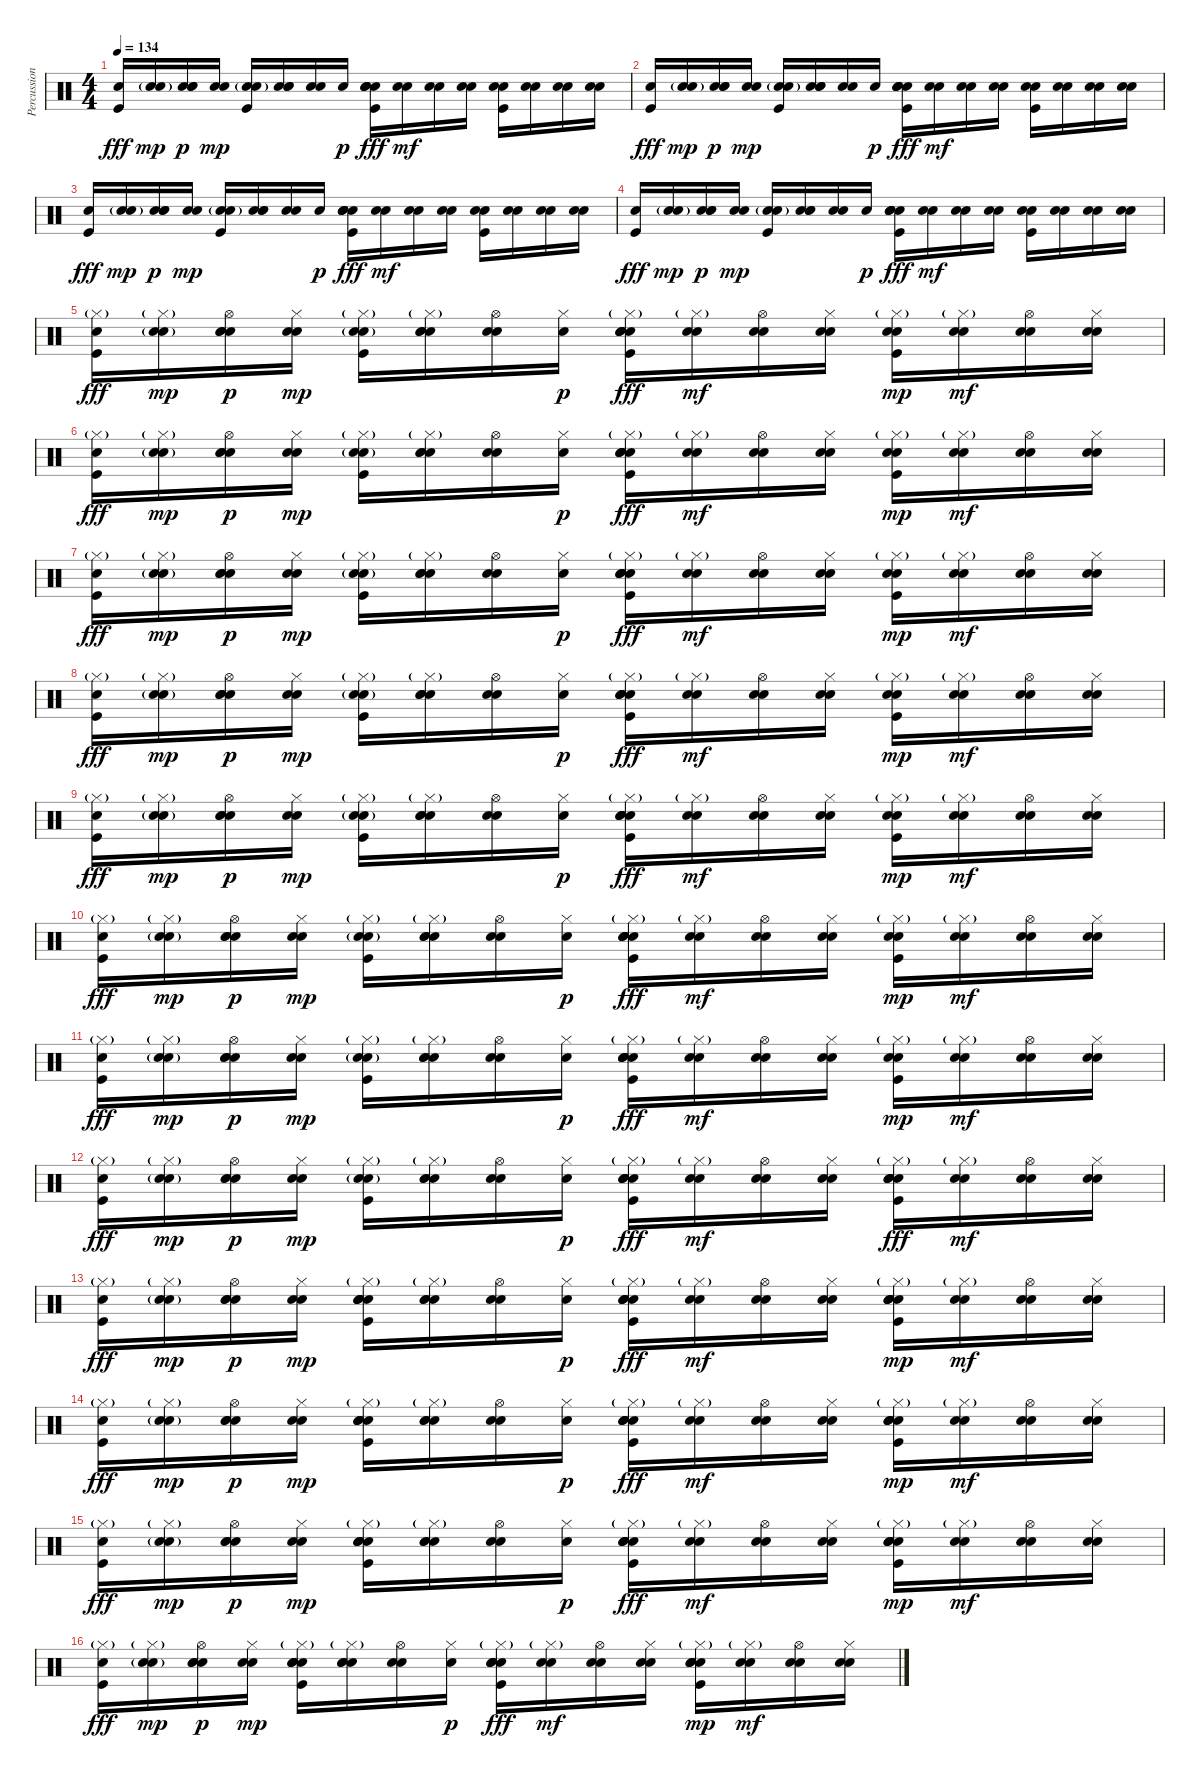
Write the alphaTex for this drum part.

\track ("Percussion" "Percussion") {instrument percussion}
\staff {score}
\articulation defaults
\ts (4 4)
\tempo 134
\clef neutral
\ks c
("Electric Snare (hit)" "Kick (hit)").16{dy fff} ("Electric Snare (hit)" "Electric Snare (hit)"{g}).16{dy mp} ("Electric Snare (hit)" "Electric Snare (hit)" "Snare (hit) 2").16{dy p} ("Electric Snare (hit)" "Snare (hit) 2").16{dy mp} ("Electric Snare (hit)" "Electric Snare (hit)"{g} "Kick (hit)").16 ("Electric Snare (hit)" "Electric Snare (hit)" "Snare (hit) 2").16 ("Electric Snare (hit)" "Snare (hit) 2").16 "Electric Snare (hit)".16{dy p} ("Electric Snare (hit)" "Snare (hit) 2" "Snare (hit) 2" "Snare (hit) 2" "Kick (hit)").16{dy fff} ("Electric Snare (hit)" "Snare (hit) 2").16{dy mf} ("Electric Snare (hit)" "Snare (hit) 2").16 ("Electric Snare (hit)" "Snare (hit) 2").16 ("Electric Snare (hit)" "Snare (hit) 2" "Kick (hit)").16 ("Electric Snare (hit)" "Snare (hit) 2").16 ("Electric Snare (hit)" "Snare (hit) 2").16 ("Electric Snare (hit)" "Snare (hit) 2").16 |
("Electric Snare (hit)" "Kick (hit)").16{dy fff} ("Electric Snare (hit)" "Electric Snare (hit)"{g}).16{dy mp} ("Electric Snare (hit)" "Electric Snare (hit)" "Snare (hit) 2").16{dy p} ("Electric Snare (hit)" "Snare (hit) 2").16{dy mp} ("Electric Snare (hit)" "Electric Snare (hit)"{g} "Kick (hit)").16 ("Electric Snare (hit)" "Electric Snare (hit)" "Snare (hit) 2").16 ("Electric Snare (hit)" "Snare (hit) 2").16 "Electric Snare (hit)".16{dy p} ("Electric Snare (hit)" "Snare (hit) 2" "Snare (hit) 2" "Snare (hit) 2" "Kick (hit)").16{dy fff} ("Electric Snare (hit)" "Snare (hit) 2").16{dy mf} ("Electric Snare (hit)" "Snare (hit) 2").16 ("Electric Snare (hit)" "Snare (hit) 2").16 ("Electric Snare (hit)" "Snare (hit) 2" "Kick (hit)").16 ("Electric Snare (hit)" "Snare (hit) 2").16 ("Electric Snare (hit)" "Snare (hit) 2").16 ("Electric Snare (hit)" "Snare (hit) 2").16 |
("Electric Snare (hit)" "Kick (hit)").16{dy fff} ("Electric Snare (hit)" "Electric Snare (hit)"{g}).16{dy mp} ("Electric Snare (hit)" "Electric Snare (hit)" "Snare (hit) 2").16{dy p} ("Electric Snare (hit)" "Snare (hit) 2").16{dy mp} ("Electric Snare (hit)" "Electric Snare (hit)"{g} "Kick (hit)").16 ("Electric Snare (hit)" "Electric Snare (hit)" "Snare (hit) 2").16 ("Electric Snare (hit)" "Snare (hit) 2").16 "Electric Snare (hit)".16{dy p} ("Electric Snare (hit)" "Snare (hit) 2" "Snare (hit) 2" "Snare (hit) 2" "Kick (hit)").16{dy fff} ("Electric Snare (hit)" "Snare (hit) 2").16{dy mf} ("Electric Snare (hit)" "Snare (hit) 2").16 ("Electric Snare (hit)" "Snare (hit) 2").16 ("Electric Snare (hit)" "Snare (hit) 2" "Kick (hit)").16 ("Electric Snare (hit)" "Snare (hit) 2").16 ("Electric Snare (hit)" "Snare (hit) 2").16 ("Electric Snare (hit)" "Snare (hit) 2").16 |
("Electric Snare (hit)" "Kick (hit)").16{dy fff} ("Electric Snare (hit)" "Electric Snare (hit)"{g}).16{dy mp} ("Electric Snare (hit)" "Electric Snare (hit)" "Snare (hit) 2").16{dy p} ("Electric Snare (hit)" "Snare (hit) 2").16{dy mp} ("Electric Snare (hit)" "Electric Snare (hit)"{g} "Kick (hit)").16 ("Electric Snare (hit)" "Electric Snare (hit)" "Snare (hit) 2").16 ("Electric Snare (hit)" "Snare (hit) 2").16 "Electric Snare (hit)".16{dy p} ("Electric Snare (hit)" "Snare (hit) 2" "Snare (hit) 2" "Snare (hit) 2" "Kick (hit)").16{dy fff} ("Electric Snare (hit)" "Snare (hit) 2").16{dy mf} ("Electric Snare (hit)" "Snare (hit) 2").16 ("Electric Snare (hit)" "Snare (hit) 2").16 ("Electric Snare (hit)" "Snare (hit) 2" "Kick (hit)").16 ("Electric Snare (hit)" "Snare (hit) 2").16 ("Electric Snare (hit)" "Snare (hit) 2").16 ("Electric Snare (hit)" "Snare (hit) 2").16 |
("Electric Snare (hit)" "Hi-Hat (closed)"{g} "Kick (hit)").16{dy fff} ("Electric Snare (hit)" "Hi-Hat (closed)"{g} "Electric Snare (hit)"{g}).16{dy mp} ("Electric Snare (hit)" "Hi-Hat (open)" "Electric Snare (hit)" "Snare (hit) 2").16{dy p} ("Electric Snare (hit)" "Hi-Hat (closed)" "Snare (hit) 2").16{dy mp} ("Electric Snare (hit)" "Hi-Hat (closed)"{g} "Electric Snare (hit)"{g} "Kick (hit)").16 ("Electric Snare (hit)" "Hi-Hat (closed)"{g} "Electric Snare (hit)" "Snare (hit) 2").16 ("Electric Snare (hit)" "Hi-Hat (open)" "Snare (hit) 2").16 ("Electric Snare (hit)" "Hi-Hat (closed)").16{dy p} ("Electric Snare (hit)" "Hi-Hat (closed)"{g} "Snare (hit) 2" "Snare (hit) 2" "Snare (hit) 2" "Kick (hit)").16{dy fff} ("Electric Snare (hit)" "Hi-Hat (closed)"{g} "Snare (hit) 2").16{dy mf} ("Electric Snare (hit)" "Hi-Hat (open)" "Snare (hit) 2").16 ("Electric Snare (hit)" "Hi-Hat (closed)" "Snare (hit) 2").16 ("Electric Snare (hit)" "Hi-Hat (closed)"{g} "Snare (hit) 2" "Kick (hit)").16{dy mp} ("Electric Snare (hit)" "Hi-Hat (closed)"{g} "Snare (hit) 2").16{dy mf} ("Electric Snare (hit)" "Hi-Hat (open)" "Snare (hit) 2").16 ("Electric Snare (hit)" "Hi-Hat (closed)" "Snare (hit) 2").16 |
("Electric Snare (hit)" "Hi-Hat (closed)"{g} "Kick (hit)").16{dy fff} ("Electric Snare (hit)" "Hi-Hat (closed)"{g} "Electric Snare (hit)"{g}).16{dy mp} ("Electric Snare (hit)" "Hi-Hat (open)" "Electric Snare (hit)" "Snare (hit) 2").16{dy p} ("Electric Snare (hit)" "Hi-Hat (closed)" "Snare (hit) 2").16{dy mp} ("Electric Snare (hit)" "Hi-Hat (closed)"{g} "Electric Snare (hit)"{g} "Kick (hit)").16 ("Electric Snare (hit)" "Hi-Hat (closed)"{g} "Electric Snare (hit)" "Snare (hit) 2").16 ("Electric Snare (hit)" "Hi-Hat (open)" "Snare (hit) 2").16 ("Electric Snare (hit)" "Hi-Hat (closed)").16{dy p} ("Electric Snare (hit)" "Hi-Hat (closed)"{g} "Snare (hit) 2" "Snare (hit) 2" "Snare (hit) 2" "Kick (hit)").16{dy fff} ("Electric Snare (hit)" "Hi-Hat (closed)"{g} "Snare (hit) 2").16{dy mf} ("Electric Snare (hit)" "Hi-Hat (open)" "Snare (hit) 2").16 ("Electric Snare (hit)" "Hi-Hat (closed)" "Snare (hit) 2").16 ("Electric Snare (hit)" "Hi-Hat (closed)"{g} "Snare (hit) 2" "Kick (hit)").16{dy mp} ("Electric Snare (hit)" "Hi-Hat (closed)"{g} "Snare (hit) 2").16{dy mf} ("Electric Snare (hit)" "Hi-Hat (open)" "Snare (hit) 2").16 ("Electric Snare (hit)" "Hi-Hat (closed)" "Snare (hit) 2").16 |
("Electric Snare (hit)" "Hi-Hat (closed)"{g} "Kick (hit)").16{dy fff} ("Electric Snare (hit)" "Hi-Hat (closed)"{g} "Electric Snare (hit)"{g}).16{dy mp} ("Electric Snare (hit)" "Hi-Hat (open)" "Electric Snare (hit)" "Snare (hit) 2").16{dy p} ("Electric Snare (hit)" "Hi-Hat (closed)" "Snare (hit) 2").16{dy mp} ("Electric Snare (hit)" "Hi-Hat (closed)"{g} "Electric Snare (hit)"{g} "Kick (hit)").16 ("Electric Snare (hit)" "Hi-Hat (closed)"{g} "Electric Snare (hit)" "Snare (hit) 2").16 ("Electric Snare (hit)" "Hi-Hat (open)" "Snare (hit) 2").16 ("Electric Snare (hit)" "Hi-Hat (closed)").16{dy p} ("Electric Snare (hit)" "Hi-Hat (closed)"{g} "Snare (hit) 2" "Snare (hit) 2" "Snare (hit) 2" "Kick (hit)").16{dy fff} ("Electric Snare (hit)" "Hi-Hat (closed)"{g} "Snare (hit) 2").16{dy mf} ("Electric Snare (hit)" "Hi-Hat (open)" "Snare (hit) 2").16 ("Electric Snare (hit)" "Hi-Hat (closed)" "Snare (hit) 2").16 ("Electric Snare (hit)" "Hi-Hat (closed)"{g} "Snare (hit) 2" "Kick (hit)").16{dy mp} ("Electric Snare (hit)" "Hi-Hat (closed)"{g} "Snare (hit) 2").16{dy mf} ("Electric Snare (hit)" "Hi-Hat (open)" "Snare (hit) 2").16 ("Electric Snare (hit)" "Hi-Hat (closed)" "Snare (hit) 2").16 |
("Electric Snare (hit)" "Hi-Hat (closed)"{g} "Kick (hit)").16{dy fff} ("Electric Snare (hit)" "Hi-Hat (closed)"{g} "Electric Snare (hit)"{g}).16{dy mp} ("Electric Snare (hit)" "Hi-Hat (open)" "Electric Snare (hit)" "Snare (hit) 2").16{dy p} ("Electric Snare (hit)" "Hi-Hat (closed)" "Snare (hit) 2").16{dy mp} ("Electric Snare (hit)" "Hi-Hat (closed)"{g} "Electric Snare (hit)"{g} "Kick (hit)").16 ("Electric Snare (hit)" "Hi-Hat (closed)"{g} "Electric Snare (hit)" "Snare (hit) 2").16 ("Electric Snare (hit)" "Hi-Hat (open)" "Snare (hit) 2").16 ("Electric Snare (hit)" "Hi-Hat (closed)").16{dy p} ("Electric Snare (hit)" "Hi-Hat (closed)"{g} "Snare (hit) 2" "Snare (hit) 2" "Snare (hit) 2" "Kick (hit)").16{dy fff} ("Electric Snare (hit)" "Hi-Hat (closed)"{g} "Snare (hit) 2").16{dy mf} ("Electric Snare (hit)" "Hi-Hat (open)" "Snare (hit) 2").16 ("Electric Snare (hit)" "Hi-Hat (closed)" "Snare (hit) 2").16 ("Electric Snare (hit)" "Hi-Hat (closed)"{g} "Snare (hit) 2" "Kick (hit)").16{dy mp} ("Electric Snare (hit)" "Hi-Hat (closed)"{g} "Snare (hit) 2").16{dy mf} ("Electric Snare (hit)" "Hi-Hat (open)" "Snare (hit) 2").16 ("Electric Snare (hit)" "Hi-Hat (closed)" "Snare (hit) 2").16 |
("Electric Snare (hit)" "Hi-Hat (closed)"{g} "Kick (hit)").16{dy fff} ("Electric Snare (hit)" "Hi-Hat (closed)"{g} "Electric Snare (hit)"{g}).16{dy mp} ("Electric Snare (hit)" "Hi-Hat (open)" "Electric Snare (hit)" "Snare (hit) 2").16{dy p} ("Electric Snare (hit)" "Hi-Hat (closed)" "Snare (hit) 2").16{dy mp} ("Electric Snare (hit)" "Hi-Hat (closed)"{g} "Electric Snare (hit)"{g} "Kick (hit)").16 ("Electric Snare (hit)" "Hi-Hat (closed)"{g} "Electric Snare (hit)" "Snare (hit) 2").16 ("Electric Snare (hit)" "Hi-Hat (open)" "Snare (hit) 2").16 ("Electric Snare (hit)" "Hi-Hat (closed)").16{dy p} ("Electric Snare (hit)" "Hi-Hat (closed)"{g} "Snare (hit) 2" "Snare (hit) 2" "Snare (hit) 2" "Kick (hit)").16{dy fff} ("Electric Snare (hit)" "Hi-Hat (closed)"{g} "Snare (hit) 2").16{dy mf} ("Electric Snare (hit)" "Hi-Hat (open)" "Snare (hit) 2").16 ("Electric Snare (hit)" "Hi-Hat (closed)" "Snare (hit) 2").16 ("Electric Snare (hit)" "Hi-Hat (closed)"{g} "Snare (hit) 2" "Kick (hit)").16{dy mp} ("Electric Snare (hit)" "Hi-Hat (closed)"{g} "Snare (hit) 2").16{dy mf} ("Electric Snare (hit)" "Hi-Hat (open)" "Snare (hit) 2").16 ("Electric Snare (hit)" "Hi-Hat (closed)" "Snare (hit) 2").16 |
("Electric Snare (hit)" "Hi-Hat (closed)"{g} "Kick (hit)").16{dy fff} ("Electric Snare (hit)" "Hi-Hat (closed)"{g} "Electric Snare (hit)"{g}).16{dy mp} ("Electric Snare (hit)" "Hi-Hat (open)" "Electric Snare (hit)" "Snare (hit) 2").16{dy p} ("Electric Snare (hit)" "Hi-Hat (closed)" "Snare (hit) 2").16{dy mp} ("Electric Snare (hit)" "Hi-Hat (closed)"{g} "Electric Snare (hit)"{g} "Kick (hit)").16 ("Electric Snare (hit)" "Hi-Hat (closed)"{g} "Electric Snare (hit)" "Snare (hit) 2").16 ("Electric Snare (hit)" "Hi-Hat (open)" "Snare (hit) 2").16 ("Electric Snare (hit)" "Hi-Hat (closed)").16{dy p} ("Electric Snare (hit)" "Hi-Hat (closed)"{g} "Snare (hit) 2" "Snare (hit) 2" "Snare (hit) 2" "Kick (hit)").16{dy fff} ("Electric Snare (hit)" "Hi-Hat (closed)"{g} "Snare (hit) 2").16{dy mf} ("Electric Snare (hit)" "Hi-Hat (open)" "Snare (hit) 2").16 ("Electric Snare (hit)" "Hi-Hat (closed)" "Snare (hit) 2").16 ("Electric Snare (hit)" "Hi-Hat (closed)"{g} "Snare (hit) 2" "Kick (hit)").16{dy mp} ("Electric Snare (hit)" "Hi-Hat (closed)"{g} "Snare (hit) 2").16{dy mf} ("Electric Snare (hit)" "Hi-Hat (open)" "Snare (hit) 2").16 ("Electric Snare (hit)" "Hi-Hat (closed)" "Snare (hit) 2").16 |
("Electric Snare (hit)" "Hi-Hat (closed)"{g} "Kick (hit)").16{dy fff} ("Electric Snare (hit)" "Hi-Hat (closed)"{g} "Electric Snare (hit)"{g}).16{dy mp} ("Electric Snare (hit)" "Hi-Hat (open)" "Electric Snare (hit)" "Snare (hit) 2").16{dy p} ("Electric Snare (hit)" "Hi-Hat (closed)" "Snare (hit) 2").16{dy mp} ("Electric Snare (hit)" "Hi-Hat (closed)"{g} "Electric Snare (hit)"{g} "Kick (hit)").16 ("Electric Snare (hit)" "Hi-Hat (closed)"{g} "Electric Snare (hit)" "Snare (hit) 2").16 ("Electric Snare (hit)" "Hi-Hat (open)" "Snare (hit) 2").16 ("Electric Snare (hit)" "Hi-Hat (closed)").16{dy p} ("Electric Snare (hit)" "Hi-Hat (closed)"{g} "Snare (hit) 2" "Snare (hit) 2" "Snare (hit) 2" "Kick (hit)").16{dy fff} ("Electric Snare (hit)" "Hi-Hat (closed)"{g} "Snare (hit) 2").16{dy mf} ("Electric Snare (hit)" "Hi-Hat (open)" "Snare (hit) 2").16 ("Electric Snare (hit)" "Hi-Hat (closed)" "Snare (hit) 2").16 ("Electric Snare (hit)" "Hi-Hat (closed)"{g} "Snare (hit) 2" "Kick (hit)").16{dy mp} ("Electric Snare (hit)" "Hi-Hat (closed)"{g} "Snare (hit) 2").16{dy mf} ("Electric Snare (hit)" "Hi-Hat (open)" "Snare (hit) 2").16 ("Electric Snare (hit)" "Hi-Hat (closed)" "Snare (hit) 2").16 |
("Electric Snare (hit)" "Hi-Hat (closed)"{g} "Kick (hit)").16{dy fff} ("Electric Snare (hit)" "Hi-Hat (closed)"{g} "Electric Snare (hit)"{g}).16{dy mp} ("Electric Snare (hit)" "Hi-Hat (open)" "Electric Snare (hit)" "Snare (hit) 2").16{dy p} ("Electric Snare (hit)" "Hi-Hat (closed)" "Snare (hit) 2").16{dy mp} ("Electric Snare (hit)" "Hi-Hat (closed)"{g} "Electric Snare (hit)"{g} "Kick (hit)").16 ("Electric Snare (hit)" "Hi-Hat (closed)"{g} "Electric Snare (hit)" "Snare (hit) 2").16 ("Electric Snare (hit)" "Hi-Hat (open)" "Snare (hit) 2").16 ("Electric Snare (hit)" "Hi-Hat (closed)").16{dy p} ("Electric Snare (hit)" "Hi-Hat (closed)"{g} "Snare (hit) 2" "Snare (hit) 2" "Snare (hit) 2" "Kick (hit)").16{dy fff} ("Electric Snare (hit)" "Hi-Hat (closed)"{g} "Snare (hit) 2").16{dy mf} ("Electric Snare (hit)" "Hi-Hat (open)" "Snare (hit) 2").16 ("Electric Snare (hit)" "Hi-Hat (closed)" "Snare (hit) 2").16 ("Hand Clap (hit)" "Hi-Hat (closed)"{g} "Hand Clap (hit)" "Hand Clap (hit)" "Hand Clap (hit)" "Kick (hit)").16{dy fff} ("Electric Snare (hit)" "Hi-Hat (closed)"{g} "Snare (hit) 2").16{dy mf} ("Electric Snare (hit)" "Hi-Hat (open)" "Snare (hit) 2").16 ("Electric Snare (hit)" "Hi-Hat (closed)" "Snare (hit) 2").16 |
("Electric Snare (hit)" "Hi-Hat (closed)"{g} "Kick (hit)").16{dy fff} ("Electric Snare (hit)" "Hi-Hat (closed)"{g} "Electric Snare (hit)"{g}).16{dy mp} ("Electric Snare (hit)" "Hi-Hat (open)" "Electric Snare (hit)" "Snare (hit) 2").16{dy p} ("Electric Snare (hit)" "Hi-Hat (closed)" "Snare (hit) 2").16{dy mp} ("Electric Snare (hit)" "Hi-Hat (closed)"{g} "Hand Clap (hit)" "Hand Clap (hit)" "Hand Clap (hit)" "Kick (hit)").16 ("Electric Snare (hit)" "Hi-Hat (closed)"{g} "Electric Snare (hit)" "Snare (hit) 2").16 ("Electric Snare (hit)" "Hi-Hat (open)" "Snare (hit) 2").16 ("Electric Snare (hit)" "Hi-Hat (closed)").16{dy p} ("Electric Snare (hit)" "Hi-Hat (closed)"{g} "Snare (hit) 2" "Snare (hit) 2" "Snare (hit) 2" "Kick (hit)").16{dy fff} ("Electric Snare (hit)" "Hi-Hat (closed)"{g} "Snare (hit) 2").16{dy mf} ("Electric Snare (hit)" "Hi-Hat (open)" "Snare (hit) 2").16 ("Electric Snare (hit)" "Hi-Hat (closed)" "Snare (hit) 2").16 ("Electric Snare (hit)" "Hi-Hat (closed)"{g} "Hand Clap (hit)" "Hand Clap (hit)" "Hand Clap (hit)" "Kick (hit)").16{dy mp} ("Electric Snare (hit)" "Hi-Hat (closed)"{g} "Snare (hit) 2").16{dy mf} ("Electric Snare (hit)" "Hi-Hat (open)" "Snare (hit) 2").16 ("Electric Snare (hit)" "Hi-Hat (closed)" "Snare (hit) 2").16 |
("Electric Snare (hit)" "Hi-Hat (closed)"{g} "Kick (hit)").16{dy fff} ("Electric Snare (hit)" "Hi-Hat (closed)"{g} "Electric Snare (hit)"{g}).16{dy mp} ("Electric Snare (hit)" "Hi-Hat (open)" "Electric Snare (hit)" "Snare (hit) 2").16{dy p} ("Electric Snare (hit)" "Hi-Hat (closed)" "Snare (hit) 2").16{dy mp} ("Electric Snare (hit)" "Hi-Hat (closed)"{g} "Hand Clap (hit)" "Hand Clap (hit)" "Hand Clap (hit)" "Kick (hit)").16 ("Electric Snare (hit)" "Hi-Hat (closed)"{g} "Electric Snare (hit)" "Snare (hit) 2").16 ("Electric Snare (hit)" "Hi-Hat (open)" "Snare (hit) 2").16 ("Electric Snare (hit)" "Hi-Hat (closed)").16{dy p} ("Electric Snare (hit)" "Hi-Hat (closed)"{g} "Snare (hit) 2" "Snare (hit) 2" "Snare (hit) 2" "Kick (hit)").16{dy fff} ("Electric Snare (hit)" "Hi-Hat (closed)"{g} "Snare (hit) 2").16{dy mf} ("Electric Snare (hit)" "Hi-Hat (open)" "Snare (hit) 2").16 ("Electric Snare (hit)" "Hi-Hat (closed)" "Snare (hit) 2").16 ("Electric Snare (hit)" "Hi-Hat (closed)"{g} "Hand Clap (hit)" "Hand Clap (hit)" "Hand Clap (hit)" "Kick (hit)").16{dy mp} ("Electric Snare (hit)" "Hi-Hat (closed)"{g} "Snare (hit) 2").16{dy mf} ("Electric Snare (hit)" "Hi-Hat (open)" "Snare (hit) 2").16 ("Electric Snare (hit)" "Hi-Hat (closed)" "Snare (hit) 2").16 |
("Electric Snare (hit)" "Hi-Hat (closed)"{g} "Kick (hit)").16{dy fff} ("Electric Snare (hit)" "Hi-Hat (closed)"{g} "Electric Snare (hit)"{g}).16{dy mp} ("Electric Snare (hit)" "Hi-Hat (open)" "Electric Snare (hit)" "Snare (hit) 2").16{dy p} ("Electric Snare (hit)" "Hi-Hat (closed)" "Snare (hit) 2").16{dy mp} ("Electric Snare (hit)" "Hi-Hat (closed)"{g} "Hand Clap (hit)" "Hand Clap (hit)" "Hand Clap (hit)" "Kick (hit)").16 ("Electric Snare (hit)" "Hi-Hat (closed)"{g} "Electric Snare (hit)" "Snare (hit) 2").16 ("Electric Snare (hit)" "Hi-Hat (open)" "Snare (hit) 2").16 ("Electric Snare (hit)" "Hi-Hat (closed)").16{dy p} ("Electric Snare (hit)" "Hi-Hat (closed)"{g} "Snare (hit) 2" "Snare (hit) 2" "Snare (hit) 2" "Kick (hit)").16{dy fff} ("Electric Snare (hit)" "Hi-Hat (closed)"{g} "Snare (hit) 2").16{dy mf} ("Electric Snare (hit)" "Hi-Hat (open)" "Snare (hit) 2").16 ("Electric Snare (hit)" "Hi-Hat (closed)" "Snare (hit) 2").16 ("Electric Snare (hit)" "Hi-Hat (closed)"{g} "Hand Clap (hit)" "Hand Clap (hit)" "Hand Clap (hit)" "Kick (hit)").16{dy mp} ("Electric Snare (hit)" "Hi-Hat (closed)"{g} "Snare (hit) 2").16{dy mf} ("Electric Snare (hit)" "Hi-Hat (open)" "Snare (hit) 2").16 ("Electric Snare (hit)" "Hi-Hat (closed)" "Snare (hit) 2").16 |
("Electric Snare (hit)" "Hi-Hat (closed)"{g} "Kick (hit)").16{dy fff} ("Electric Snare (hit)" "Hi-Hat (closed)"{g} "Electric Snare (hit)"{g}).16{dy mp} ("Electric Snare (hit)" "Hi-Hat (open)" "Electric Snare (hit)" "Snare (hit) 2").16{dy p} ("Electric Snare (hit)" "Hi-Hat (closed)" "Snare (hit) 2").16{dy mp} ("Electric Snare (hit)" "Hi-Hat (closed)"{g} "Hand Clap (hit)" "Hand Clap (hit)" "Hand Clap (hit)" "Kick (hit)").16 ("Electric Snare (hit)" "Hi-Hat (closed)"{g} "Electric Snare (hit)" "Snare (hit) 2").16 ("Electric Snare (hit)" "Hi-Hat (open)" "Snare (hit) 2").16 ("Electric Snare (hit)" "Hi-Hat (closed)").16{dy p} ("Electric Snare (hit)" "Hi-Hat (closed)"{g} "Snare (hit) 2" "Snare (hit) 2" "Snare (hit) 2" "Kick (hit)").16{dy fff} ("Electric Snare (hit)" "Hi-Hat (closed)"{g} "Snare (hit) 2").16{dy mf} ("Electric Snare (hit)" "Hi-Hat (open)" "Snare (hit) 2").16 ("Electric Snare (hit)" "Hi-Hat (closed)" "Snare (hit) 2").16 ("Electric Snare (hit)" "Hi-Hat (closed)"{g} "Hand Clap (hit)" "Hand Clap (hit)" "Hand Clap (hit)" "Kick (hit)").16{dy mp} ("Electric Snare (hit)" "Hi-Hat (closed)"{g} "Snare (hit) 2").16{dy mf} ("Electric Snare (hit)" "Hi-Hat (open)" "Snare (hit) 2").16 ("Electric Snare (hit)" "Hi-Hat (closed)" "Snare (hit) 2").16
